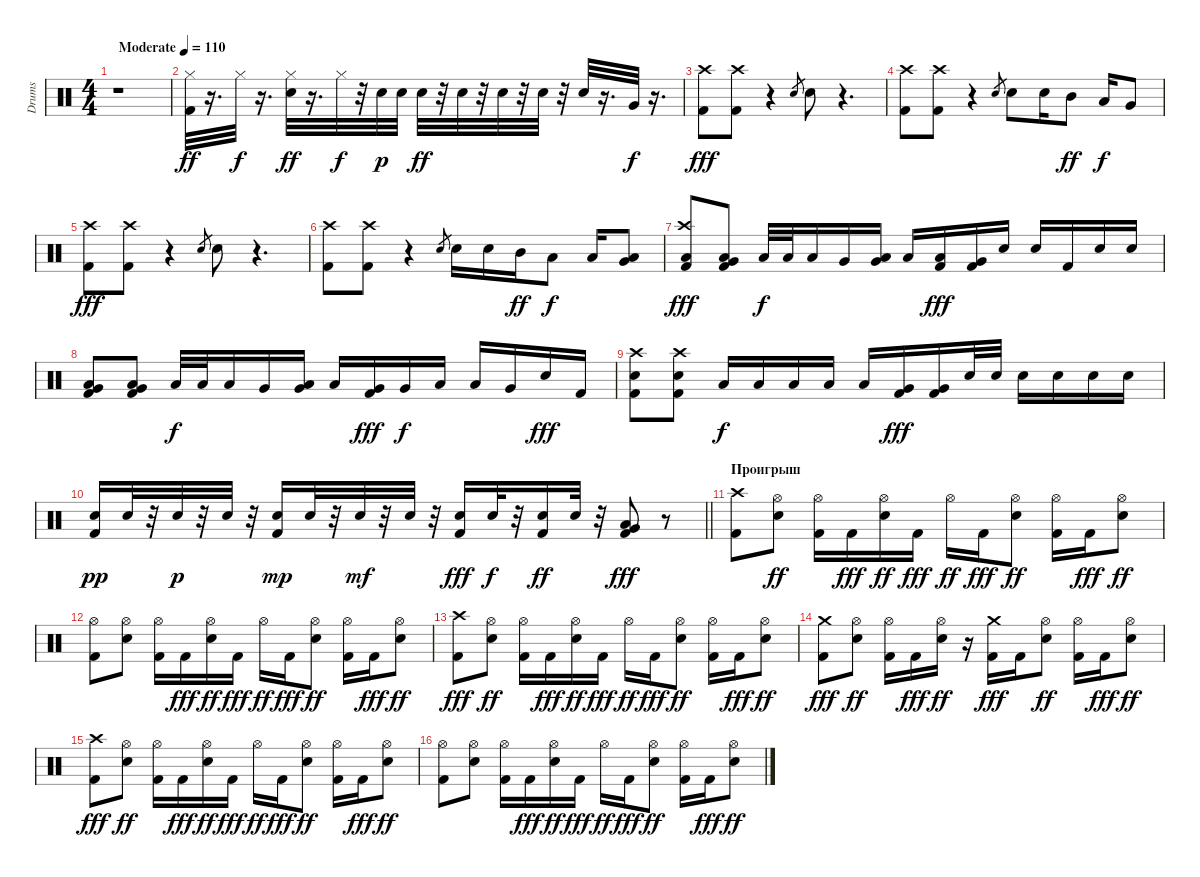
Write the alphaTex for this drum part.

\track ("Drums" "Drums") {instrument percussion}
\staff {score}
\articulation defaults
\ts (4 4)
\tempo (110 "Moderate")
\clef neutral
\ks c
r.1{dy ff} |
("Kick (hit) 2" "Hi-Hat (closed)").32 r.16{d} "Hi-Hat (closed)".32{dy f} r.16{d} ("Electric Snare (hit)" "Hi-Hat (closed)").32{dy ff} r.16{d} "Hi-Hat (closed)".32{dy f} r.32 "Electric Snare (hit)".32{dy p} "Electric Snare (hit)".32 "Electric Snare (hit)".32{dy ff} r.32 "Electric Snare (hit)".32 r.32 "Electric Snare (hit)".32 r.32 "Electric Snare (hit)".32 r.32 "Electric Snare (hit)".32 r.16{d} "Very Low Tom (hit)".32{dy f} r.16{d} |
("Kick (hit) 2" "Crash high (hit)").8{dy fff} ("Kick (hit) 2" "Crash high (hit)").8 r.4 "Electric Snare (hit)".8{gr} "Electric Snare (hit)".8 r.4{d} |
("Kick (hit) 2" "Crash high (hit)").8 ("Kick (hit) 2" "Crash high (hit)").8 r.4 "Electric Snare (hit)".8{gr} "Electric Snare (hit)".8 "Electric Snare (hit)".16 "Mid Tom (hit)".8{dy ff} "Low Tom (hit)".16{dy f} "Very Low Tom (hit)".8 |
("Kick (hit) 2" "Crash high (hit)").8{dy fff} ("Kick (hit) 2" "Crash high (hit)").8 r.4 "Electric Snare (hit)".8{gr} "Electric Snare (hit)".8 r.4{d} |
("Kick (hit) 2" "Crash high (hit)").8 ("Kick (hit) 2" "Crash high (hit)").8 r.4 "Electric Snare (hit)".8{gr} "Electric Snare (hit)".16 "Electric Snare (hit)".16 "Mid Tom (hit)".16{dy ff} "Low Tom (hit)".8{dy f} "Low Tom (hit)".16 ("Very Low Tom (hit)" "Low Tom (hit)").8 |
("Kick (hit) 2" "Low Floor Tom (hit)" "Crash high (hit)").8{dy fff} ("Kick (hit) 2" "Low Floor Tom (hit)" "Very Low Tom (hit)").8 "Low Tom (hit)".32{dy f} "Low Tom (hit)".32 "Low Tom (hit)".16 "Very Low Tom (hit)".16 ("Low Floor Tom (hit)" "Very Low Tom (hit)").16 "Low Floor Tom (hit)".16 ("Kick (hit) 2" "Low Tom (hit)").16{dy fff} ("Kick (hit) 2" "Very Low Tom (hit)").16 "Electric Snare (hit)".16 "Electric Snare (hit)".16 "Kick (hit) 2".16 "Electric Snare (hit)".16 "Electric Snare (hit)".16 |
("Kick (hit) 2" "Low Floor Tom (hit)" "Very Low Tom (hit)").8 ("Kick (hit) 2" "Low Floor Tom (hit)" "Very Low Tom (hit)").8 "Low Tom (hit)".32{dy f} "Low Tom (hit)".32 "Low Tom (hit)".16 "Very Low Tom (hit)".16 ("Low Floor Tom (hit)" "Very Low Tom (hit)").16 "Low Floor Tom (hit)".16 ("Kick (hit) 2" "Very Low Tom (hit)").16{dy fff} "Very Low Tom (hit)".16{dy f} "Low Tom (hit)".16 "Low Tom (hit)".16 "Very Low Tom (hit)".16 "Electric Snare (hit)".16{dy fff} "Kick (hit) 2".16 |
("Kick (hit) 2" "Electric Snare (hit)" "Crash high (hit)").8 ("Kick (hit) 2" "Electric Snare (hit)" "Crash high (hit)").8 "Low Tom (hit)".16{dy f} "Low Tom (hit)".16 "Low Tom (hit)".16 "Low Floor Tom (hit)".16 "Low Floor Tom (hit)".16 ("Kick (hit) 2" "Very Low Tom (hit)").16{dy fff} ("Kick (hit) 2" "Very Low Tom (hit)").16 "Electric Snare (hit)".32 "Electric Snare (hit)".32 "Electric Snare (hit)".16 "Electric Snare (hit)".16 "Electric Snare (hit)".16 "Electric Snare (hit)".16 |
\barLineRight lightlight
("Kick (hit) 2" "Electric Snare (hit)").16{dy pp} "Electric Snare (hit)".32 r.32 "Electric Snare (hit)".32{dy p} r.32 "Electric Snare (hit)".32 r.32 ("Kick (hit) 2" "Electric Snare (hit)").16{dy mp} "Electric Snare (hit)".32 r.32 "Electric Snare (hit)".32{dy mf} r.32 "Electric Snare (hit)".32 r.32 ("Kick (hit) 2" "Electric Snare (hit)").16{dy fff} "Electric Snare (hit)".32{dy f} r.32 ("Kick (hit) 2" "Electric Snare (hit)").16{dy ff} "Electric Snare (hit)".32 r.32 ("Very Low Tom (hit)" "Kick (hit) 2" "Low Floor Tom (hit)").8{dy fff} r.8 |
\section ("" "Проигрыш")
("Kick (hit) 2" "Crash high (hit)").8 ("Electric Snare (hit)" "Hi-Hat (open)").8{dy ff} ("Kick (hit) 2" "Hi-Hat (open)").16 "Kick (hit) 2".16{dy fff} ("Electric Snare (hit)" "Hi-Hat (open)").16{dy ff} "Kick (hit) 2".16{dy fff} "Hi-Hat (open)".16{dy ff} "Kick (hit) 2".16{dy fff} ("Electric Snare (hit)" "Hi-Hat (open)").8{dy ff} ("Kick (hit) 2" "Hi-Hat (open)").16 "Kick (hit) 2".16{dy fff} ("Electric Snare (hit)" "Hi-Hat (open)").8{dy ff} |
("Kick (hit) 2" "Hi-Hat (open)").8 ("Electric Snare (hit)" "Hi-Hat (open)").8 ("Kick (hit) 2" "Hi-Hat (open)").16 "Kick (hit) 2".16{dy fff} ("Electric Snare (hit)" "Hi-Hat (open)").16{dy ff} "Kick (hit) 2".16{dy fff} "Hi-Hat (open)".16{dy ff} "Kick (hit) 2".16{dy fff} ("Electric Snare (hit)" "Hi-Hat (open)").8{dy ff} ("Kick (hit) 2" "Hi-Hat (open)").16 "Kick (hit) 2".16{dy fff} ("Electric Snare (hit)" "Hi-Hat (open)").8{dy ff} |
("Kick (hit) 2" "Crash high (hit)").8{dy fff} ("Electric Snare (hit)" "Hi-Hat (open)").8{dy ff} ("Kick (hit) 2" "Hi-Hat (open)").16 "Kick (hit) 2".16{dy fff} ("Electric Snare (hit)" "Hi-Hat (open)").16{dy ff} "Kick (hit) 2".16{dy fff} "Hi-Hat (open)".16{dy ff} "Kick (hit) 2".16{dy fff} ("Electric Snare (hit)" "Hi-Hat (open)").8{dy ff} ("Kick (hit) 2" "Hi-Hat (open)").16 "Kick (hit) 2".16{dy fff} ("Electric Snare (hit)" "Hi-Hat (open)").8{dy ff} |
("Kick (hit) 2" "Crash medium (hit)").8{dy fff} ("Electric Snare (hit)" "Hi-Hat (open)").8{dy ff} ("Kick (hit) 2" "Hi-Hat (open)").16 "Kick (hit) 2".16{dy fff} ("Electric Snare (hit)" "Hi-Hat (open)").16{dy ff} r.16 ("Kick (hit) 2" "Crash medium (hit)").16{dy fff} "Kick (hit) 2".16 ("Electric Snare (hit)" "Hi-Hat (open)").8{dy ff} ("Kick (hit) 2" "Hi-Hat (open)").16 "Kick (hit) 2".16{dy fff} ("Electric Snare (hit)" "Hi-Hat (open)").8{dy ff} |
("Kick (hit) 2" "Crash high (hit)").8{dy fff} ("Electric Snare (hit)" "Hi-Hat (open)").8{dy ff} ("Kick (hit) 2" "Hi-Hat (open)").16 "Kick (hit) 2".16{dy fff} ("Electric Snare (hit)" "Hi-Hat (open)").16{dy ff} "Kick (hit) 2".16{dy fff} "Hi-Hat (open)".16{dy ff} "Kick (hit) 2".16{dy fff} ("Electric Snare (hit)" "Hi-Hat (open)").8{dy ff} ("Kick (hit) 2" "Hi-Hat (open)").16 "Kick (hit) 2".16{dy fff} ("Electric Snare (hit)" "Hi-Hat (open)").8{dy ff} |
("Kick (hit) 2" "Hi-Hat (open)").8 ("Electric Snare (hit)" "Hi-Hat (open)").8 ("Kick (hit) 2" "Hi-Hat (open)").16 "Kick (hit) 2".16{dy fff} ("Electric Snare (hit)" "Hi-Hat (open)").16{dy ff} "Kick (hit) 2".16{dy fff} "Hi-Hat (open)".16{dy ff} "Kick (hit) 2".16{dy fff} ("Electric Snare (hit)" "Hi-Hat (open)").8{dy ff} ("Kick (hit) 2" "Hi-Hat (open)").16 "Kick (hit) 2".16{dy fff} ("Electric Snare (hit)" "Hi-Hat (open)").8{dy ff}
